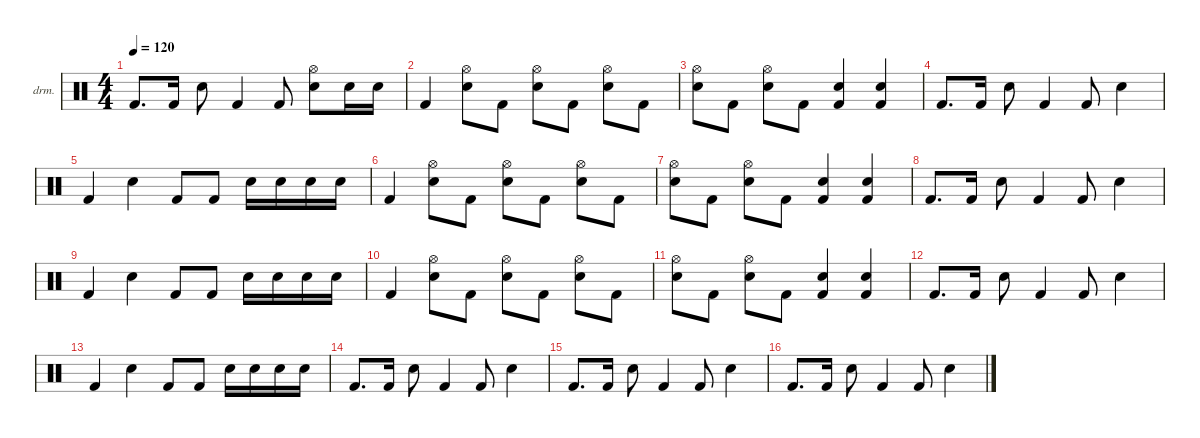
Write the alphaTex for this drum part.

\defaultSystemsLayout 4
\hideDynamics
\bracketExtendMode nobrackets
\firstSystemTrackNameOrientation horizontal
\otherSystemsTrackNameOrientation horizontal
\track ("Percussion" "drm.") {instrument percussion}
\staff {score}
\articulation defaults
\ts (4 4)
\tempo 120
\clef neutral
\ks c "Kick (hit) 2".8{d dy f} "Kick (hit) 2".16 "Snare (hit) 2".8 "Kick (hit) 2".4 "Kick (hit) 2".8
("Snare (hit) 2" "Hi-Hat (open)").8 "Snare (hit) 2".16 "Snare (hit) 2".16 |
"Kick (hit) 2".4 ("Snare (hit) 2" "Hi-Hat (open)").8 "Kick (hit) 2".8 ("Snare (hit) 2" "Hi-Hat (open)").8 "Kick (hit) 2".8 ("Snare (hit) 2" "Hi-Hat (open)").8 "Kick (hit) 2".8 |
("Snare (hit) 2" "Hi-Hat (open)").8 "Kick (hit) 2".8 ("Snare (hit) 2" "Hi-Hat (open)").8 "Kick (hit) 2".8 ("Snare (hit) 2" "Kick (hit) 2").4 ("Snare (hit) 2" "Kick (hit) 2").4 |
"Kick (hit) 2".8{d} "Kick (hit) 2".16 "Snare (hit) 2".8 "Kick (hit) 2".4 "Kick (hit) 2".8 "Snare (hit) 2".4 |
"Kick (hit) 2".4 "Snare (hit) 2".4 "Kick (hit) 2".8 "Kick (hit) 2".8 "Snare (hit) 2".16 "Snare (hit) 2".16 "Snare (hit) 2".16 "Snare (hit) 2".16 |
"Kick (hit) 2".4 ("Snare (hit) 2" "Hi-Hat (open)").8 "Kick (hit) 2".8 ("Snare (hit) 2" "Hi-Hat (open)").8 "Kick (hit) 2".8 ("Snare (hit) 2" "Hi-Hat (open)").8 "Kick (hit) 2".8 |
("Snare (hit) 2" "Hi-Hat (open)").8 "Kick (hit) 2".8 ("Snare (hit) 2" "Hi-Hat (open)").8 "Kick (hit) 2".8 ("Snare (hit) 2" "Kick (hit) 2").4 ("Snare (hit) 2" "Kick (hit) 2").4 |
"Kick (hit) 2".8{d} "Kick (hit) 2".16 "Snare (hit) 2".8 "Kick (hit) 2".4 "Kick (hit) 2".8 "Snare (hit) 2".4 |
"Kick (hit) 2".4 "Snare (hit) 2".4 "Kick (hit) 2".8 "Kick (hit) 2".8 "Snare (hit) 2".16 "Snare (hit) 2".16 "Snare (hit) 2".16 "Snare (hit) 2".16 |
"Kick (hit) 2".4 ("Snare (hit) 2" "Hi-Hat (open)").8 "Kick (hit) 2".8 ("Snare (hit) 2" "Hi-Hat (open)").8 "Kick (hit) 2".8 ("Snare (hit) 2" "Hi-Hat (open)").8 "Kick (hit) 2".8 |
("Snare (hit) 2" "Hi-Hat (open)").8 "Kick (hit) 2".8 ("Snare (hit) 2" "Hi-Hat (open)").8 "Kick (hit) 2".8 ("Snare (hit) 2" "Kick (hit) 2").4 ("Snare (hit) 2" "Kick (hit) 2").4 |
"Kick (hit) 2".8{d} "Kick (hit) 2".16 "Snare (hit) 2".8 "Kick (hit) 2".4 "Kick (hit) 2".8 "Snare (hit) 2".4 |
"Kick (hit) 2".4 "Snare (hit) 2".4 "Kick (hit) 2".8 "Kick (hit) 2".8 "Snare (hit) 2".16 "Snare (hit) 2".16 "Snare (hit) 2".16 "Snare (hit) 2".16 |
"Kick (hit) 2".8{d} "Kick (hit) 2".16 "Snare (hit) 2".8 "Kick (hit) 2".4 "Kick (hit) 2".8 "Snare (hit) 2".4 |
"Kick (hit) 2".8{d} "Kick (hit) 2".16 "Snare (hit) 2".8 "Kick (hit) 2".4 "Kick (hit) 2".8 "Snare (hit) 2".4 |
"Kick (hit) 2".8{d} "Kick (hit) 2".16 "Snare (hit) 2".8 "Kick (hit) 2".4 "Kick (hit) 2".8 "Snare (hit) 2".4
